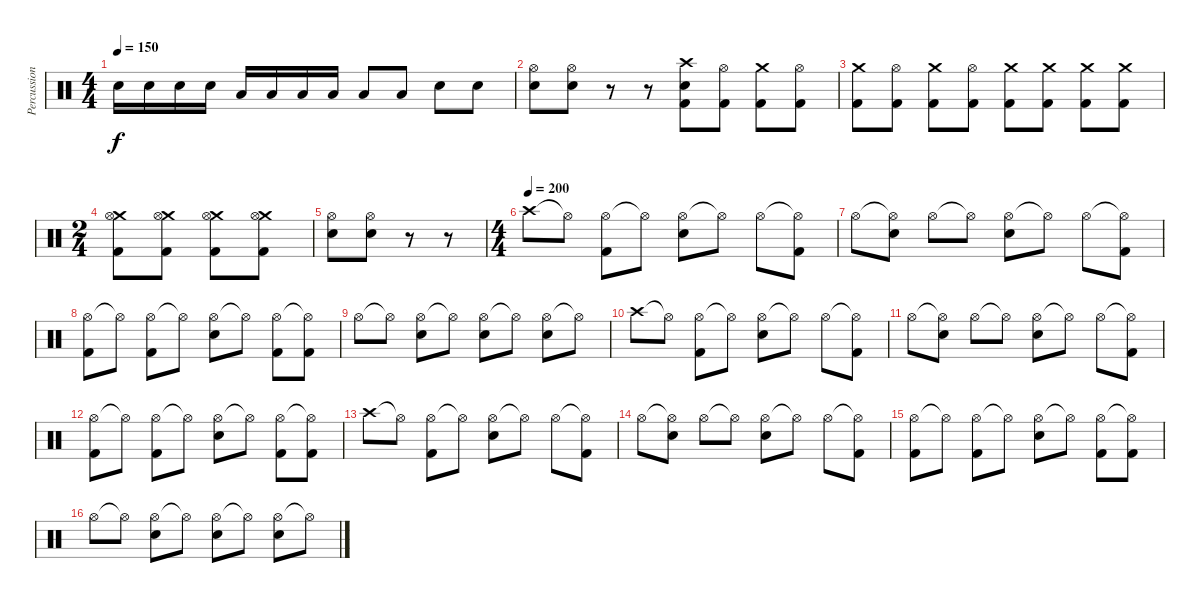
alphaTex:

\track ("Percussioni" "Percussion") {instrument percussion}
\staff {score}
\articulation defaults
\ts (4 4)
\tempo 150
\clef neutral
\ks c "Snare (hit) 2".16{dy f} "Snare (hit) 2".16 "Snare (hit) 2".16 "Snare (hit) 2".16 "Low Tom (hit)".16 "Low Tom (hit)".16 "Low Tom (hit)".16 "Low Tom (hit)".16 "Low Tom (hit)".8 "Low Tom (hit)".8 "Snare (hit) 2".8 "Snare (hit) 2".8
|
("Hi-Hat (open)" "Snare (hit) 2").8 ("Hi-Hat (open)" "Snare (hit) 2").8 r.8 r.8 ("Crash high (hit)" "Snare (hit) 2" "Kick (hit) 2").8 ("Hi-Hat (open)" "Kick (hit) 2").8 ("Crash medium (hit)" "Kick (hit) 2").8 ("Hi-Hat (open)" "Kick (hit) 2").8 |
("Crash medium (hit)" "Kick (hit) 2").8 ("Hi-Hat (open)" "Kick (hit) 2").8 ("Crash medium (hit)" "Kick (hit) 2").8 ("Hi-Hat (open)" "Kick (hit) 2").8 ("Crash medium (hit)" "Kick (hit) 2").8 ("Crash medium (hit)" "Kick (hit) 2").8 ("Crash medium (hit)" "Kick (hit) 2").8 ("Crash medium (hit)" "Kick (hit) 2").8 |
\ts (2 4)
("Crash medium (hit)" "Hi-Hat (open)" "Kick (hit) 2").8 ("Crash medium (hit)" "Hi-Hat (open)" "Kick (hit) 2").8 ("Crash medium (hit)" "Hi-Hat (open)" "Kick (hit) 2").8 ("Crash medium (hit)" "Hi-Hat (open)" "Kick (hit) 2").8 |
("Hi-Hat (open)" "Snare (hit) 2").8 ("Hi-Hat (open)" "Snare (hit) 2").8 r.8 r.8 |
\ts (4 4)
\tempo (200)
"Crash high (hit)".8 "Hi-Hat (open)"{t}.8 ("Hi-Hat (open)" "Kick (hit) 2").8 "Hi-Hat (open)"{t}.8 ("Hi-Hat (open)" "Snare (hit) 2").8 "Hi-Hat (open)"{t}.8 "Hi-Hat (open)".8 ("Hi-Hat (open)"{t} "Kick (hit) 2").8 |
"Hi-Hat (open)".8 ("Hi-Hat (open)"{t} "Snare (hit) 2").8 "Hi-Hat (open)".8 "Hi-Hat (open)"{t}.8 ("Hi-Hat (open)" "Snare (hit) 2").8 "Hi-Hat (open)"{t}.8 "Hi-Hat (open)".8 ("Hi-Hat (open)"{t} "Kick (hit) 2").8 |
("Hi-Hat (open)" "Kick (hit) 2").8 "Hi-Hat (open)"{t}.8 ("Hi-Hat (open)" "Kick (hit) 2").8 "Hi-Hat (open)"{t}.8 ("Hi-Hat (open)" "Snare (hit) 2").8 "Hi-Hat (open)"{t}.8 ("Hi-Hat (open)" "Kick (hit) 2").8 ("Hi-Hat (open)"{t} "Kick (hit) 2").8 |
"Hi-Hat (open)".8 "Hi-Hat (open)"{t}.8 ("Hi-Hat (open)" "Snare (hit) 2").8 "Hi-Hat (open)"{t}.8 ("Hi-Hat (open)" "Snare (hit) 2").8 "Hi-Hat (open)"{t}.8 ("Hi-Hat (open)" "Snare (hit) 2").8 "Hi-Hat (open)"{t}.8 |
"Crash high (hit)".8 "Hi-Hat (open)"{t}.8 ("Hi-Hat (open)" "Kick (hit) 2").8 "Hi-Hat (open)"{t}.8 ("Hi-Hat (open)" "Snare (hit) 2").8 "Hi-Hat (open)"{t}.8 "Hi-Hat (open)".8 ("Hi-Hat (open)"{t} "Kick (hit) 2").8 |
"Hi-Hat (open)".8 ("Hi-Hat (open)"{t} "Snare (hit) 2").8 "Hi-Hat (open)".8 "Hi-Hat (open)"{t}.8 ("Hi-Hat (open)" "Snare (hit) 2").8 "Hi-Hat (open)"{t}.8 "Hi-Hat (open)".8 ("Hi-Hat (open)"{t} "Kick (hit) 2").8 |
("Hi-Hat (open)" "Kick (hit) 2").8 "Hi-Hat (open)"{t}.8 ("Hi-Hat (open)" "Kick (hit) 2").8 "Hi-Hat (open)"{t}.8 ("Hi-Hat (open)" "Snare (hit) 2").8 "Hi-Hat (open)"{t}.8 ("Hi-Hat (open)" "Kick (hit) 2").8 ("Hi-Hat (open)"{t} "Kick (hit) 2").8 |
"Crash high (hit)".8 "Hi-Hat (open)"{t}.8 ("Hi-Hat (open)" "Kick (hit) 2").8 "Hi-Hat (open)"{t}.8 ("Hi-Hat (open)" "Snare (hit) 2").8 "Hi-Hat (open)"{t}.8 "Hi-Hat (open)".8 ("Hi-Hat (open)"{t} "Kick (hit) 2").8 |
"Hi-Hat (open)".8 ("Hi-Hat (open)"{t} "Snare (hit) 2").8 "Hi-Hat (open)".8 "Hi-Hat (open)"{t}.8 ("Hi-Hat (open)" "Snare (hit) 2").8 "Hi-Hat (open)"{t}.8 "Hi-Hat (open)".8 ("Hi-Hat (open)"{t} "Kick (hit) 2").8 |
("Hi-Hat (open)" "Kick (hit) 2").8 "Hi-Hat (open)"{t}.8 ("Hi-Hat (open)" "Kick (hit) 2").8 "Hi-Hat (open)"{t}.8 ("Hi-Hat (open)" "Snare (hit) 2").8 "Hi-Hat (open)"{t}.8 ("Hi-Hat (open)" "Kick (hit) 2").8 ("Hi-Hat (open)"{t} "Kick (hit) 2").8 |
"Hi-Hat (open)".8 "Hi-Hat (open)"{t}.8 ("Hi-Hat (open)" "Snare (hit) 2").8 "Hi-Hat (open)"{t}.8 ("Hi-Hat (open)" "Snare (hit) 2").8 "Hi-Hat (open)"{t}.8 ("Hi-Hat (open)" "Snare (hit) 2").8 "Hi-Hat (open)"{t}.8
